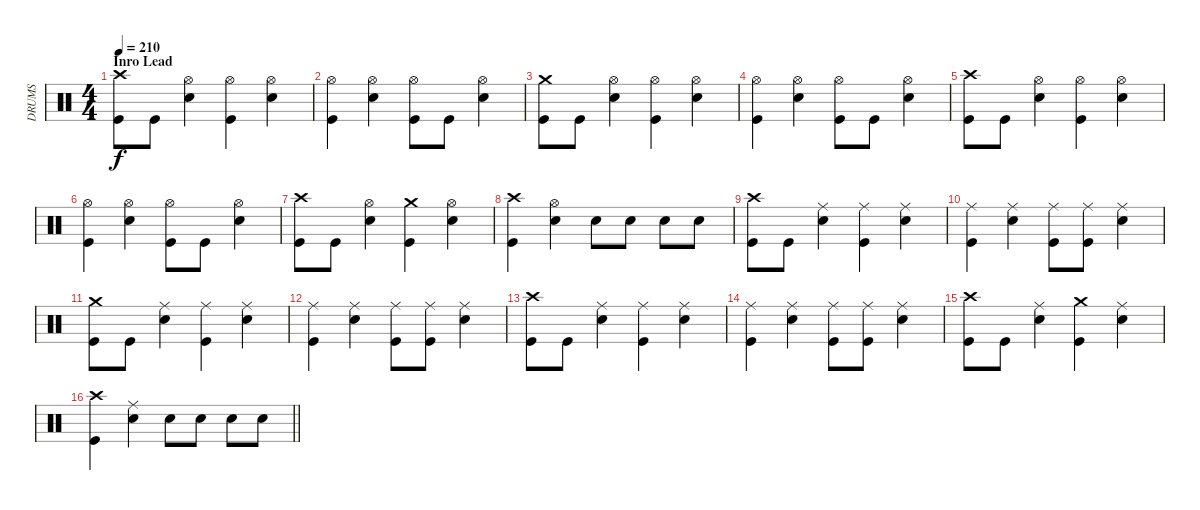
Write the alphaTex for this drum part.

\track ("DRUMS" "DRUMS") {instrument percussion}
\staff {score}
\articulation defaults
\ts (4 4)
\section ("" "Inro Lead")
\tempo 210
\clef neutral
\ks c
("Crash high (hit)" "Kick (hit)").8{dy f} "Kick (hit)".8 ("Hi-Hat (open)" "Snare (hit) 2").4 ("Hi-Hat (open)" "Kick (hit)").4 ("Hi-Hat (open)" "Snare (hit) 2").4 |
("Hi-Hat (open)" "Kick (hit)").4 ("Hi-Hat (open)" "Snare (hit) 2").4 ("Hi-Hat (open)" "Kick (hit)").8 "Kick (hit)".8 ("Hi-Hat (open)" "Snare (hit) 2").4 |
("Crash medium (hit)" "Kick (hit)").8 "Kick (hit)".8 ("Hi-Hat (open)" "Snare (hit) 2").4 ("Hi-Hat (open)" "Kick (hit)").4 ("Hi-Hat (open)" "Snare (hit) 2").4 |
("Hi-Hat (open)" "Kick (hit)").4 ("Hi-Hat (open)" "Snare (hit) 2").4 ("Hi-Hat (open)" "Kick (hit)").8 "Kick (hit)".8 ("Hi-Hat (open)" "Snare (hit) 2").4 |
("Crash high (hit)" "Kick (hit)").8 "Kick (hit)".8 ("Hi-Hat (open)" "Snare (hit) 2").4 ("Hi-Hat (open)" "Kick (hit)").4 ("Hi-Hat (open)" "Snare (hit) 2").4 |
("Hi-Hat (open)" "Kick (hit)").4 ("Hi-Hat (open)" "Snare (hit) 2").4 ("Hi-Hat (open)" "Kick (hit)").8 "Kick (hit)".8 ("Hi-Hat (open)" "Snare (hit) 2").4 |
("Crash high (hit)" "Kick (hit)").8 "Kick (hit)".8 ("Hi-Hat (open)" "Snare (hit) 2").4 ("Crash medium (hit)" "Kick (hit)").4 ("Hi-Hat (open)" "Snare (hit) 2").4 |
("Crash high (hit)" "Kick (hit)").4 ("Hi-Hat (open)" "Snare (hit) 2").4 "Snare (hit) 2".8 "Snare (hit) 2".8 "Snare (hit) 2".8 "Snare (hit) 2".8 |
("Crash high (hit)" "Kick (hit)").8 "Kick (hit)".8 ("Ride (middle)" "Snare (hit) 2").4 ("Ride (middle)" "Kick (hit)").4 ("Ride (middle)" "Snare (hit) 2").4 |
("Ride (middle)" "Kick (hit)").4 ("Ride (middle)" "Snare (hit) 2").4 ("Ride (middle)" "Kick (hit)").8 ("Ride (middle)" "Kick (hit)").8 ("Ride (middle)" "Snare (hit) 2").4 |
("Crash medium (hit)" "Kick (hit)").8 "Kick (hit)".8 ("Ride (middle)" "Snare (hit) 2").4 ("Ride (middle)" "Kick (hit)").4 ("Ride (middle)" "Snare (hit) 2").4 |
("Ride (middle)" "Kick (hit)").4 ("Ride (middle)" "Snare (hit) 2").4 ("Ride (middle)" "Kick (hit)").8 ("Ride (middle)" "Kick (hit)").8 ("Ride (middle)" "Snare (hit) 2").4 |
("Crash high (hit)" "Kick (hit)").8 "Kick (hit)".8 ("Ride (middle)" "Snare (hit) 2").4 ("Ride (middle)" "Kick (hit)").4 ("Ride (middle)" "Snare (hit) 2").4 |
("Ride (middle)" "Kick (hit)").4 ("Ride (middle)" "Snare (hit) 2").4 ("Ride (middle)" "Kick (hit)").8 ("Ride (middle)" "Kick (hit)").8 ("Ride (middle)" "Snare (hit) 2").4 |
("Crash high (hit)" "Kick (hit)").8 "Kick (hit)".8 ("Ride (middle)" "Snare (hit) 2").4 ("Crash medium (hit)" "Kick (hit)").4 ("Ride (middle)" "Snare (hit) 2").4 |
\barLineRight lightlight
("Crash high (hit)" "Kick (hit)").4 ("Ride (middle)" "Snare (hit) 2").4 "Snare (hit) 2".8 "Snare (hit) 2".8 "Snare (hit) 2".8 "Snare (hit) 2".8
